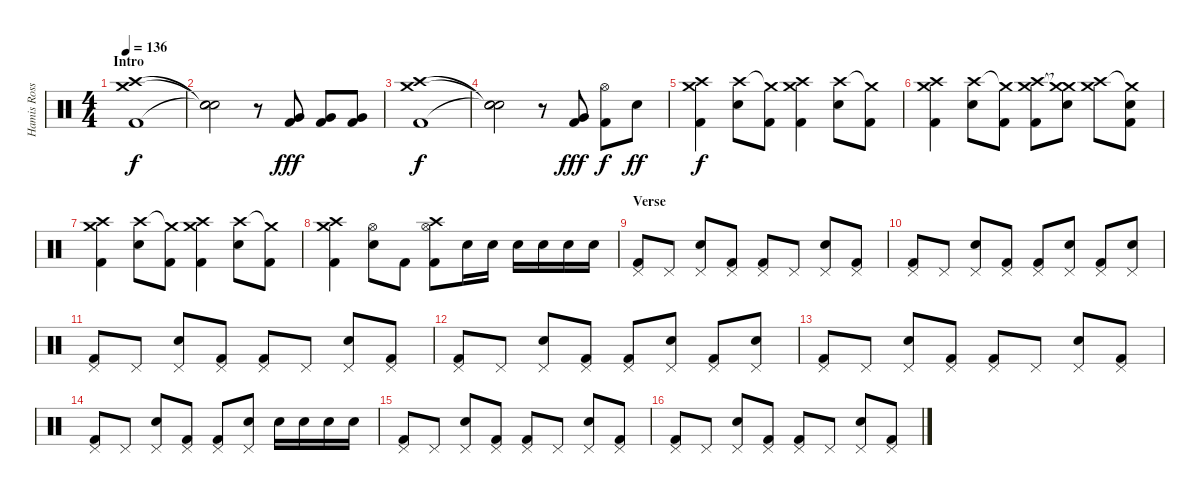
\track ("Hamis Rosser" "Hamis Ross") {instrument percussion}
\staff {score}
\articulation defaults
\ts (4 4)
\section ("" "Intro")
\tempo 136
\clef neutral
\ks c
("Crash high (hit)" "Crash medium (hit)" "Kick (hit) 2").1{dy f} |
("Snare (hit)"{t} "Snare (hit)"{t} "Snare (hit)"{t}).2 r.8 ("Very Low Tom (hit)" "Kick (hit) 2").8{dy fff} ("Very Low Tom (hit)" "Kick (hit) 2").8 ("Very Low Tom (hit)" "Kick (hit) 2").8 |
("Crash high (hit)" "Crash medium (hit)" "Kick (hit) 2").1{dy f} |
("Snare (hit)"{t} "Snare (hit)"{t} "Snare (hit)"{t}).2 r.8 ("Very Low Tom (hit)" "Kick (hit) 2").8{dy fff} ("Hi-Hat (open)" "Kick (hit) 2").8{dy f} "Snare (hit) 2".8{dy ff} |
("Crash medium (hit)" "Crash high (hit)" "Kick (hit) 2").4{dy f} ("Crash high (hit)" "Electric Snare (hit)").8 ("Crash medium (hit)"{t} "Kick (hit) 2").8 ("Crash medium (hit)" "Crash high (hit)" "Kick (hit) 2").4 ("Crash high (hit)" "Electric Snare (hit)").8 ("Crash medium (hit)"{t} "Kick (hit) 2").8 |
("Crash medium (hit)" "Crash high (hit)" "Kick (hit) 2").4 ("Crash high (hit)" "Electric Snare (hit)").8 ("Crash medium (hit)"{t} "Kick (hit) 2").8 ("Crash medium (hit)" "Crash high (hit)" "Kick (hit) 2").8 ("Crash medium (hit)"{t} "Crash medium (hit)"{t} "Electric Snare (hit)").8 ("Crash high (hit)" "Crash medium (hit)").8 ("Crash medium (hit)"{t} "Electric Snare (hit)" "Kick (hit) 2").8 |
("Crash medium (hit)" "Crash high (hit)" "Kick (hit) 2").4 ("Crash high (hit)" "Electric Snare (hit)").8 ("Crash medium (hit)"{t} "Kick (hit) 2").8 ("Crash medium (hit)" "Crash high (hit)" "Kick (hit) 2").4 ("Crash high (hit)" "Electric Snare (hit)").8 ("Crash medium (hit)"{t} "Kick (hit) 2").8 |
("Crash medium (hit)" "Crash high (hit)" "Kick (hit) 2").4 ("Hi-Hat (open)" "Electric Snare (hit)").8 "Kick (hit) 2".8 ("Crash high (hit)" "Hi-Hat (open)" "Kick (hit) 2").8 "Electric Snare (hit)".16 "Electric Snare (hit)".16 "Electric Snare (hit)".16 "Electric Snare (hit)".16 "Electric Snare (hit)".16 "Electric Snare (hit)".16 |
\section ("" "Verse ")
("Pedal Hi-Hat (hit)" "Kick (hit) 2").8 "Pedal Hi-Hat (hit)".8 ("Pedal Hi-Hat (hit)" "Electric Snare (hit)").8 ("Pedal Hi-Hat (hit)" "Kick (hit) 2").8 ("Pedal Hi-Hat (hit)" "Kick (hit) 2").8 "Pedal Hi-Hat (hit)".8 ("Pedal Hi-Hat (hit)" "Electric Snare (hit)").8 ("Pedal Hi-Hat (hit)" "Kick (hit) 2").8 |
("Pedal Hi-Hat (hit)" "Kick (hit) 2").8 "Pedal Hi-Hat (hit)".8 ("Pedal Hi-Hat (hit)" "Electric Snare (hit)").8 ("Pedal Hi-Hat (hit)" "Kick (hit) 2").8 ("Pedal Hi-Hat (hit)" "Kick (hit) 2").8 ("Pedal Hi-Hat (hit)" "Electric Snare (hit)").8 ("Pedal Hi-Hat (hit)" "Kick (hit) 2").8 ("Pedal Hi-Hat (hit)" "Electric Snare (hit)").8 |
("Pedal Hi-Hat (hit)" "Kick (hit) 2").8 "Pedal Hi-Hat (hit)".8 ("Pedal Hi-Hat (hit)" "Electric Snare (hit)").8 ("Pedal Hi-Hat (hit)" "Kick (hit) 2").8 ("Pedal Hi-Hat (hit)" "Kick (hit) 2").8 "Pedal Hi-Hat (hit)".8 ("Pedal Hi-Hat (hit)" "Electric Snare (hit)").8 ("Pedal Hi-Hat (hit)" "Kick (hit) 2").8 |
("Pedal Hi-Hat (hit)" "Kick (hit) 2").8 "Pedal Hi-Hat (hit)".8 ("Pedal Hi-Hat (hit)" "Electric Snare (hit)").8 ("Pedal Hi-Hat (hit)" "Kick (hit) 2").8 ("Pedal Hi-Hat (hit)" "Kick (hit) 2").8 ("Pedal Hi-Hat (hit)" "Electric Snare (hit)").8 ("Pedal Hi-Hat (hit)" "Kick (hit) 2").8 ("Pedal Hi-Hat (hit)" "Electric Snare (hit)").8 |
("Pedal Hi-Hat (hit)" "Kick (hit) 2").8 "Pedal Hi-Hat (hit)".8 ("Pedal Hi-Hat (hit)" "Electric Snare (hit)").8 ("Pedal Hi-Hat (hit)" "Kick (hit) 2").8 ("Pedal Hi-Hat (hit)" "Kick (hit) 2").8 "Pedal Hi-Hat (hit)".8 ("Pedal Hi-Hat (hit)" "Electric Snare (hit)").8 ("Pedal Hi-Hat (hit)" "Kick (hit) 2").8 |
("Pedal Hi-Hat (hit)" "Kick (hit) 2").8 "Pedal Hi-Hat (hit)".8 ("Pedal Hi-Hat (hit)" "Electric Snare (hit)").8 ("Pedal Hi-Hat (hit)" "Kick (hit) 2").8 ("Pedal Hi-Hat (hit)" "Kick (hit) 2").8 ("Pedal Hi-Hat (hit)" "Electric Snare (hit)").8 "Electric Snare (hit)".16 "Electric Snare (hit)".16 "Electric Snare (hit)".16 "Electric Snare (hit)".16 |
("Pedal Hi-Hat (hit)" "Kick (hit) 2").8 "Pedal Hi-Hat (hit)".8 ("Pedal Hi-Hat (hit)" "Electric Snare (hit)").8 ("Pedal Hi-Hat (hit)" "Kick (hit) 2").8 ("Pedal Hi-Hat (hit)" "Kick (hit) 2").8 "Pedal Hi-Hat (hit)".8 ("Pedal Hi-Hat (hit)" "Electric Snare (hit)").8 ("Pedal Hi-Hat (hit)" "Kick (hit) 2").8 |
("Pedal Hi-Hat (hit)" "Kick (hit) 2").8 "Pedal Hi-Hat (hit)".8 ("Pedal Hi-Hat (hit)" "Electric Snare (hit)").8 ("Pedal Hi-Hat (hit)" "Kick (hit) 2").8 ("Pedal Hi-Hat (hit)" "Kick (hit) 2").8 "Pedal Hi-Hat (hit)".8 ("Pedal Hi-Hat (hit)" "Electric Snare (hit)").8 ("Pedal Hi-Hat (hit)" "Kick (hit) 2").8
